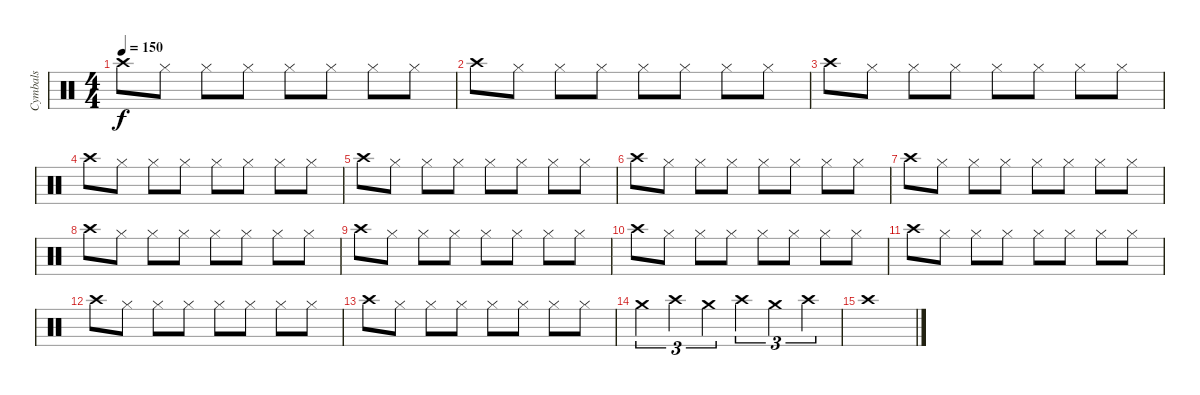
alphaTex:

\track ("Cymbals" "Cymbals") {instrument percussion}
\staff {score}
\articulation defaults
\ts (4 4)
\tempo 150
\clef neutral
\ks c "Crash high (hit)".8{dy f} "Hi-Hat (closed)".8 "Hi-Hat (closed)".8 "Hi-Hat (closed)".8 "Hi-Hat (closed)".8 "Hi-Hat (closed)".8 "Hi-Hat (closed)".8 "Hi-Hat (closed)".8
|
"Crash high (hit)".8 "Hi-Hat (closed)".8 "Hi-Hat (closed)".8 "Hi-Hat (closed)".8 "Hi-Hat (closed)".8 "Hi-Hat (closed)".8 "Hi-Hat (closed)".8 "Hi-Hat (closed)".8 |
"Crash high (hit)".8 "Hi-Hat (closed)".8 "Hi-Hat (closed)".8 "Hi-Hat (closed)".8 "Hi-Hat (closed)".8 "Hi-Hat (closed)".8 "Hi-Hat (closed)".8 "Hi-Hat (closed)".8 |
"Crash high (hit)".8 "Hi-Hat (closed)".8 "Hi-Hat (closed)".8 "Hi-Hat (closed)".8 "Hi-Hat (closed)".8 "Hi-Hat (closed)".8 "Hi-Hat (closed)".8 "Hi-Hat (closed)".8 |
"Crash high (hit)".8 "Hi-Hat (closed)".8 "Hi-Hat (closed)".8 "Hi-Hat (closed)".8 "Hi-Hat (closed)".8 "Hi-Hat (closed)".8 "Hi-Hat (closed)".8 "Hi-Hat (closed)".8 |
"Crash high (hit)".8 "Hi-Hat (closed)".8 "Hi-Hat (closed)".8 "Hi-Hat (closed)".8 "Hi-Hat (closed)".8 "Hi-Hat (closed)".8 "Hi-Hat (closed)".8 "Hi-Hat (closed)".8 |
"Crash high (hit)".8 "Hi-Hat (closed)".8 "Hi-Hat (closed)".8 "Hi-Hat (closed)".8 "Hi-Hat (closed)".8 "Hi-Hat (closed)".8 "Hi-Hat (closed)".8 "Hi-Hat (closed)".8 |
"Crash high (hit)".8 "Hi-Hat (closed)".8 "Hi-Hat (closed)".8 "Hi-Hat (closed)".8 "Hi-Hat (closed)".8 "Hi-Hat (closed)".8 "Hi-Hat (closed)".8 "Hi-Hat (closed)".8 |
"Crash high (hit)".8 "Hi-Hat (closed)".8 "Hi-Hat (closed)".8 "Hi-Hat (closed)".8 "Hi-Hat (closed)".8 "Hi-Hat (closed)".8 "Hi-Hat (closed)".8 "Hi-Hat (closed)".8 |
"Crash high (hit)".8 "Hi-Hat (closed)".8 "Hi-Hat (closed)".8 "Hi-Hat (closed)".8 "Hi-Hat (closed)".8 "Hi-Hat (closed)".8 "Hi-Hat (closed)".8 "Hi-Hat (closed)".8 |
"Crash high (hit)".8 "Hi-Hat (closed)".8 "Hi-Hat (closed)".8 "Hi-Hat (closed)".8 "Hi-Hat (closed)".8 "Hi-Hat (closed)".8 "Hi-Hat (closed)".8 "Hi-Hat (closed)".8 |
"Crash high (hit)".8 "Hi-Hat (closed)".8 "Hi-Hat (closed)".8 "Hi-Hat (closed)".8 "Hi-Hat (closed)".8 "Hi-Hat (closed)".8 "Hi-Hat (closed)".8 "Hi-Hat (closed)".8 |
"Crash high (hit)".8 "Hi-Hat (closed)".8 "Hi-Hat (closed)".8 "Hi-Hat (closed)".8 "Hi-Hat (closed)".8 "Hi-Hat (closed)".8 "Hi-Hat (closed)".8 "Hi-Hat (closed)".8 |
"Crash medium (hit)".4{tu (3 2)} "Crash high (hit)".4{tu (3 2)} "Crash medium (hit)".4{tu (3 2)} "Crash high (hit)".4{tu (3 2)} "Crash medium (hit)".4{tu (3 2)} "Crash high (hit)".4{tu (3 2)} |
"Crash high (hit)".1
